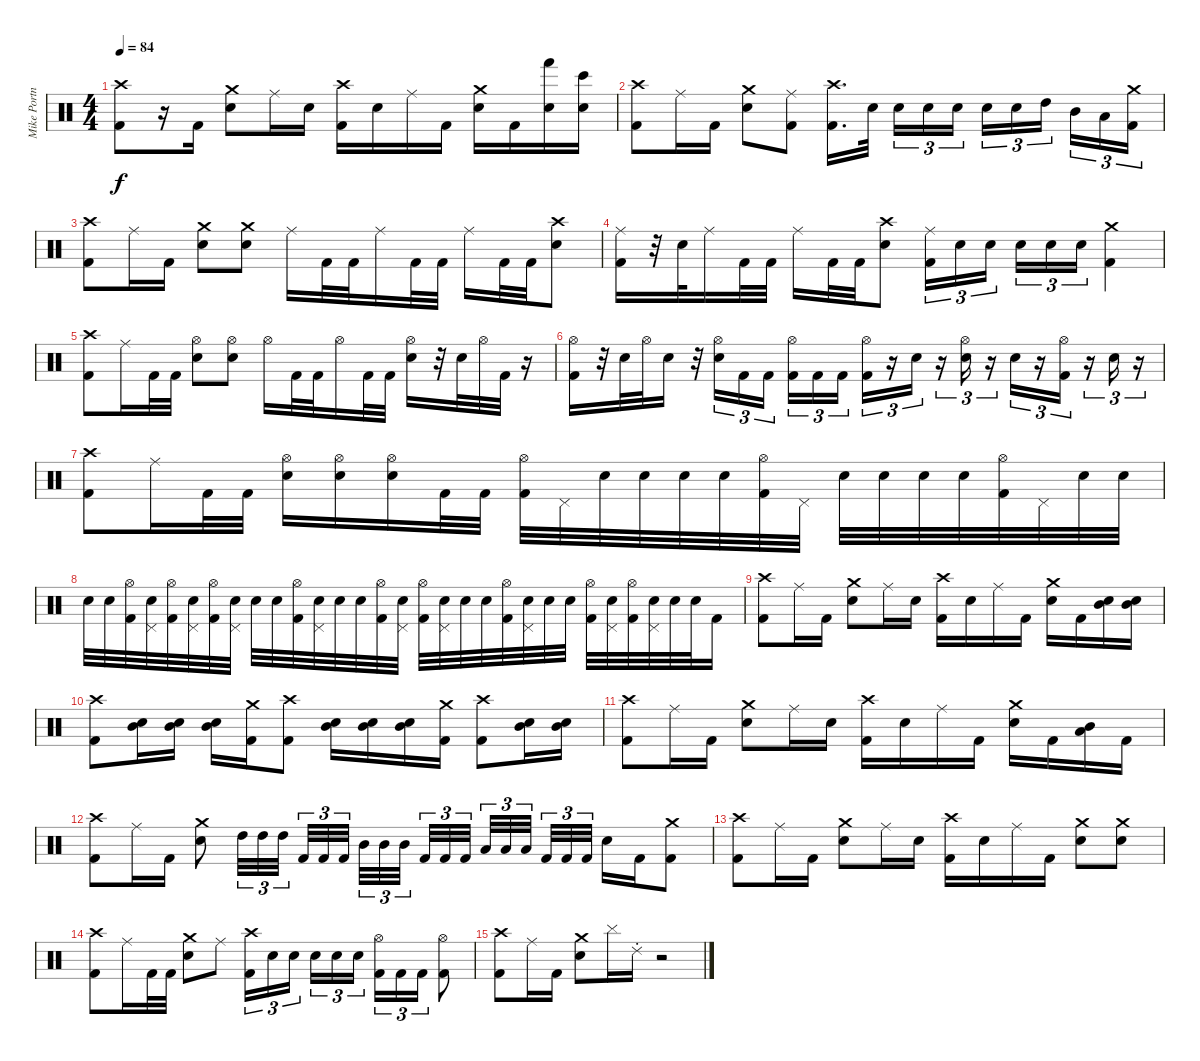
\track ("Mike Portnoy" "Mike Portn") {instrument percussion}
\staff {score}
\articulation defaults
\ts (4 4)
\tempo 84
\clef neutral
\ks c
("Crash high (hit)" "Kick (hit) 2").8{dy f} r.16 "Kick (hit) 2".16 ("Crash medium (hit)" "Snare (hit) 2").8 "Ride (middle)".16 "Snare (hit) 2".16 ("Crash high (hit)" "Kick (hit) 2").16 "Snare (hit) 2".16 "Ride (middle)".16 "Kick (hit) 2".16 ("Crash medium (hit)" "Snare (hit) 2").16 "Kick (hit) 2".16 ("Hand (hit)" "Snare (hit) 2").16 ("Bongo High (hit)" "Snare (hit) 2").16 |
("Crash high (hit)" "Kick (hit) 2").8 "Ride (middle)".16 "Kick (hit) 2".16 ("Crash medium (hit)" "Snare (hit) 2").8 ("Ride (middle)" "Kick (hit) 2").8 ("Crash high (hit)" "Kick (hit) 2").16{d} "Snare (hit) 2".32{beam splitsecondary} "Snare (hit) 2".16{tu (3 2)} "Snare (hit) 2".16{tu (3 2)} "Snare (hit) 2".16{tu (3 2)} "Snare (hit) 2".16{tu (3 2)} "Snare (hit) 2".16{tu (3 2)} "High Tom (hit)".16{tu (3 2) beam splitsecondary} "Mid Tom (hit)".16{tu (3 2)} "Low Tom (hit)".16{tu (3 2)} ("Crash medium (hit)" "Kick (hit) 2").16{tu (3 2)} |
("Crash high (hit)" "Kick (hit) 2").8 "Ride (middle)".16 "Kick (hit) 2".16 ("Crash medium (hit)" "Snare (hit) 2").8 ("Crash medium (hit)" "Snare (hit) 2").8 "Ride (middle)".16 "Kick (hit) 2".32 "Kick (hit) 2".32 "Ride (middle)".16 "Kick (hit) 2".32 "Kick (hit) 2".32 "Ride (middle)".16 "Kick (hit) 2".32 "Kick (hit) 2".32 ("Crash high (hit)" "Snare (hit) 2").8 |
("Ride (middle)" "Kick (hit) 2").16 r.32 "Snare (hit) 2".32 "Ride (middle)".16 "Kick (hit) 2".32 "Kick (hit) 2".32 "Ride (middle)".16 "Kick (hit) 2".32 "Kick (hit) 2".32 ("Crash high (hit)" "Snare (hit) 2").8 ("Ride (middle)" "Kick (hit) 2").16{tu (3 2)} "Snare (hit) 2".16{tu (3 2)} "Snare (hit) 2".16{tu (3 2) beam splitsecondary} "Snare (hit) 2".16{tu (3 2)} "Snare (hit) 2".16{tu (3 2)} "Snare (hit) 2".16{tu (3 2)} ("Crash medium (hit)" "Kick (hit) 2").4 |
("Crash high (hit)" "Kick (hit) 2").8 "Ride (middle)".16 "Kick (hit) 2".32 "Kick (hit) 2".32 ("Hi-Hat (open)" "Snare (hit) 2").8 ("Hi-Hat (open)" "Snare (hit) 2").8 "Hi-Hat (open)".16 "Kick (hit) 2".32 "Kick (hit) 2".32 "Hi-Hat (open)".16 "Kick (hit) 2".32 "Kick (hit) 2".32 ("Hi-Hat (open)" "Snare (hit) 2").16 r.32 "Snare (hit) 2".32 "Hi-Hat (open)".32 "Kick (hit) 2".32 r.16 |
("Hi-Hat (open)" "Kick (hit) 2").16{volume 12 balance 0} r.32 "Snare (hit) 2".32 "Hi-Hat (open)".32 "Snare (hit) 2".16 r.32 ("Hi-Hat (open)" "Snare (hit) 2").16{tu (3 2)} "Kick (hit) 2".16{tu (3 2)} "Kick (hit) 2".16{tu (3 2) beam splitsecondary} ("Hi-Hat (open)" "Kick (hit) 2").16{tu (3 2)} "Kick (hit) 2".16{tu (3 2)} "Kick (hit) 2".16{tu (3 2)} ("Hi-Hat (open)" "Kick (hit) 2").16{tu (3 2)} r.16{tu (3 2)} "Snare (hit) 2".16{tu (3 2)} r.16{tu (3 2)} ("Hi-Hat (open)" "Snare (hit) 2").16{tu (3 2)} r.16{tu (3 2)} "Snare (hit) 2".16{tu (3 2)} r.16{tu (3 2)} ("Hi-Hat (open)" "Kick (hit) 2").16{tu (3 2)} r.16{tu (3 2)} "Snare (hit) 2".16{tu (3 2)} r.16{tu (3 2)} |
("Crash high (hit)" "Kick (hit) 2").8 "Ride (middle)".16 "Kick (hit) 2".32 "Kick (hit) 2".32 ("Hi-Hat (open)" "Snare (hit) 2").16 ("Hi-Hat (open)" "Snare (hit) 2").16 ("Hi-Hat (open)" "Snare (hit) 2").16 "Kick (hit) 2".32 "Kick (hit) 2".32 ("Hi-Hat (open)" "Kick (hit) 2").32 "Pedal Hi-Hat (hit)".32 "Snare (hit) 2".32 "Snare (hit) 2".32 "Snare (hit) 2".32 "Snare (hit) 2".32 ("Hi-Hat (open)" "Kick (hit) 2").32 "Pedal Hi-Hat (hit)".32 "Snare (hit) 2".32 "Snare (hit) 2".32 "Snare (hit) 2".32 "Snare (hit) 2".32 ("Hi-Hat (open)" "Kick (hit) 2").32 "Pedal Hi-Hat (hit)".32 "Snare (hit) 2".32 "Snare (hit) 2".32 |
"Snare (hit) 2".32 "Snare (hit) 2".32 ("Hi-Hat (open)" "Kick (hit) 2").32 ("Pedal Hi-Hat (hit)" "Snare (hit) 2").32 ("Hi-Hat (open)" "Kick (hit) 2").32 ("Pedal Hi-Hat (hit)" "Snare (hit) 2").32 ("Hi-Hat (open)" "Kick (hit) 2").32 ("Pedal Hi-Hat (hit)" "Snare (hit) 2").32 "Snare (hit) 2".32 "Snare (hit) 2".32 ("Hi-Hat (open)" "Kick (hit) 2").32 ("Pedal Hi-Hat (hit)" "Snare (hit) 2").32 "Snare (hit) 2".32 "Snare (hit) 2".32 ("Hi-Hat (open)" "Kick (hit) 2").32 ("Pedal Hi-Hat (hit)" "Snare (hit) 2").32 ("Hi-Hat (open)" "Kick (hit) 2").32 ("Pedal Hi-Hat (hit)" "Snare (hit) 2").32 "Snare (hit) 2".32 "Snare (hit) 2".32 ("Hi-Hat (open)" "Kick (hit) 2").32 ("Pedal Hi-Hat (hit)" "Snare (hit) 2").32 "Snare (hit) 2".32 "Snare (hit) 2".32 ("Hi-Hat (open)" "Kick (hit) 2").32 ("Pedal Hi-Hat (hit)" "Snare (hit) 2").32 ("Hi-Hat (open)" "Kick (hit) 2").32 ("Pedal Hi-Hat (hit)" "Snare (hit) 2").32 "Snare (hit) 2".32 "Snare (hit) 2".32 "Kick (hit) 2".16 |
("Crash high (hit)" "Kick (hit) 2").8 "Ride (middle)".16 "Kick (hit) 2".16 ("Crash medium (hit)" "Snare (hit) 2").8 "Ride (middle)".16 "Snare (hit) 2".16 ("Crash high (hit)" "Kick (hit) 2").16 "Snare (hit) 2".16 "Ride (middle)".16 "Kick (hit) 2".16 ("Crash medium (hit)" "Snare (hit) 2").16 "Kick (hit) 2".16 ("Mid Tom (hit)" "Snare (hit) 2").16 ("Mid Tom (hit)" "Snare (hit) 2").16 |
("Crash high (hit)" "Kick (hit) 2").8 ("Mid Tom (hit)" "Snare (hit) 2").16 ("Mid Tom (hit)" "Snare (hit) 2").16 ("Mid Tom (hit)" "Snare (hit) 2").16 ("Crash medium (hit)" "Kick (hit) 2").16 ("Crash high (hit)" "Kick (hit) 2").8 ("Mid Tom (hit)" "Snare (hit) 2").16 ("Mid Tom (hit)" "Snare (hit) 2").16 ("Mid Tom (hit)" "Snare (hit) 2").16 ("Crash medium (hit)" "Kick (hit) 2").16 ("Crash high (hit)" "Kick (hit) 2").8 ("Mid Tom (hit)" "Snare (hit) 2").16 ("Mid Tom (hit)" "Snare (hit) 2").16 |
("Crash high (hit)" "Kick (hit) 2").8 "Ride (middle)".16 "Kick (hit) 2".16 ("Crash medium (hit)" "Snare (hit) 2").8 "Ride (middle)".16 "Snare (hit) 2".16 ("Crash high (hit)" "Kick (hit) 2").16 "Snare (hit) 2".16 "Ride (middle)".16 "Kick (hit) 2".16 ("Crash medium (hit)" "Snare (hit) 2").16 "Kick (hit) 2".16 ("Mid Tom (hit)" "Low Tom (hit)").16 "Kick (hit) 2".16 |
("Crash high (hit)" "Kick (hit) 2").8 "Ride (middle)".16 "Kick (hit) 2".16 ("Crash medium (hit)" "Snare (hit) 2").8 "High Tom (hit)".32{tu (3 2)} "High Tom (hit)".32{tu (3 2)} "High Tom (hit)".32{tu (3 2) beam splitsecondary} "Kick (hit) 2".32{tu (3 2)} "Kick (hit) 2".32{tu (3 2)} "Kick (hit) 2".32{tu (3 2)} "Mid Tom (hit)".32{tu (3 2)} "Mid Tom (hit)".32{tu (3 2)} "Mid Tom (hit)".32{tu (3 2) beam splitsecondary} "Kick (hit) 2".32{tu (3 2)} "Kick (hit) 2".32{tu (3 2)} "Kick (hit) 2".32{tu (3 2) beam splitsecondary} "Low Tom (hit)".32{tu (3 2)} "Low Tom (hit)".32{tu (3 2)} "Low Tom (hit)".32{tu (3 2) beam splitsecondary} "Kick (hit) 2".32{tu (3 2)} "Kick (hit) 2".32{tu (3 2)} "Kick (hit) 2".32{tu (3 2)} "Snare (hit) 2".16 "Kick (hit) 2".16 ("Crash medium (hit)" "Kick (hit) 2").8 |
("Crash high (hit)" "Kick (hit) 2").8 "Ride (middle)".16 "Kick (hit) 2".16 ("Crash medium (hit)" "Snare (hit) 2").8 "Ride (middle)".16 "Snare (hit) 2".16 ("Crash high (hit)" "Kick (hit) 2").16 "Snare (hit) 2".16 "Ride (middle)".16 "Kick (hit) 2".16 ("Crash medium (hit)" "Snare (hit) 2").8 ("Crash medium (hit)" "Snare (hit) 2").8 |
("Crash high (hit)" "Kick (hit) 2").8 "Ride (middle)".16 "Kick (hit) 2".32 "Kick (hit) 2".32 ("Crash medium (hit)" "Snare (hit) 2").8 "Ride (middle)".8 ("Crash high (hit)" "Kick (hit) 2").16{tu (3 2)} "Snare (hit) 2".16{tu (3 2)} "Snare (hit) 2".16{tu (3 2) beam splitsecondary} "Snare (hit) 2".16{tu (3 2)} "Snare (hit) 2".16{tu (3 2)} "Snare (hit) 2".16{tu (3 2)} ("Hi-Hat (open)" "Kick (hit) 2").16{tu (3 2)} "Kick (hit) 2".16{tu (3 2)} "Kick (hit) 2".16{tu (3 2)} ("Hi-Hat (open)" "Kick (hit) 2").8 |
("Crash high (hit)" "Kick (hit) 2").8 "Ride (middle)".16 "Kick (hit) 2".16 ("Crash medium (hit)" "Snare (hit) 2").8 "Cymbal (hit)".16 "Ride (choke) 2".16 r.2
